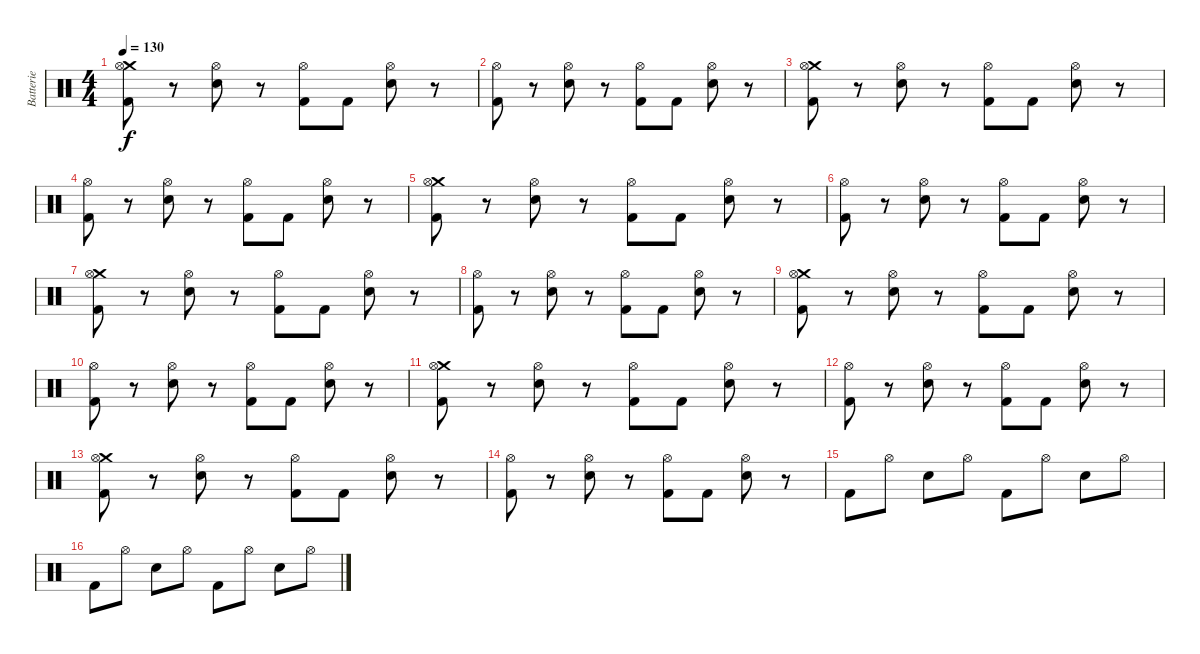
\track ("Batterie" "Batterie") {instrument percussion}
\staff {score}
\articulation defaults
\ts (4 4)
\tempo 130
\clef neutral
\ks c
("Crash medium (hit)" "Hi-Hat (open)" "Kick (hit) 2").8{dy f} r.8 ("Hi-Hat (open)" "Electric Snare (hit)").8 r.8 ("Hi-Hat (open)" "Kick (hit) 2").8 "Kick (hit) 2".8 ("Hi-Hat (open)" "Electric Snare (hit)").8 r.8 |
("Hi-Hat (open)" "Kick (hit) 2").8 r.8 ("Hi-Hat (open)" "Electric Snare (hit)").8 r.8 ("Hi-Hat (open)" "Kick (hit) 2").8 "Kick (hit) 2".8 ("Hi-Hat (open)" "Electric Snare (hit)").8 r.8 |
("Crash medium (hit)" "Hi-Hat (open)" "Kick (hit) 2").8 r.8 ("Hi-Hat (open)" "Electric Snare (hit)").8 r.8 ("Hi-Hat (open)" "Kick (hit) 2").8 "Kick (hit) 2".8 ("Hi-Hat (open)" "Electric Snare (hit)").8 r.8 |
("Hi-Hat (open)" "Kick (hit) 2").8 r.8 ("Hi-Hat (open)" "Electric Snare (hit)").8 r.8 ("Hi-Hat (open)" "Kick (hit) 2").8 "Kick (hit) 2".8 ("Hi-Hat (open)" "Electric Snare (hit)").8 r.8 |
("Crash medium (hit)" "Hi-Hat (open)" "Kick (hit) 2").8 r.8 ("Hi-Hat (open)" "Electric Snare (hit)").8 r.8 ("Hi-Hat (open)" "Kick (hit) 2").8 "Kick (hit) 2".8 ("Hi-Hat (open)" "Electric Snare (hit)").8 r.8 |
("Hi-Hat (open)" "Kick (hit) 2").8 r.8 ("Hi-Hat (open)" "Electric Snare (hit)").8 r.8 ("Hi-Hat (open)" "Kick (hit) 2").8 "Kick (hit) 2".8 ("Hi-Hat (open)" "Electric Snare (hit)").8 r.8 |
("Crash medium (hit)" "Hi-Hat (open)" "Kick (hit) 2").8 r.8 ("Hi-Hat (open)" "Electric Snare (hit)").8 r.8 ("Hi-Hat (open)" "Kick (hit) 2").8 "Kick (hit) 2".8 ("Hi-Hat (open)" "Electric Snare (hit)").8 r.8 |
("Hi-Hat (open)" "Kick (hit) 2").8 r.8 ("Hi-Hat (open)" "Electric Snare (hit)").8 r.8 ("Hi-Hat (open)" "Kick (hit) 2").8 "Kick (hit) 2".8 ("Hi-Hat (open)" "Electric Snare (hit)").8 r.8 |
("Crash medium (hit)" "Hi-Hat (open)" "Kick (hit) 2").8 r.8 ("Hi-Hat (open)" "Electric Snare (hit)").8 r.8 ("Hi-Hat (open)" "Kick (hit) 2").8 "Kick (hit) 2".8 ("Hi-Hat (open)" "Electric Snare (hit)").8 r.8 |
("Hi-Hat (open)" "Kick (hit) 2").8 r.8 ("Hi-Hat (open)" "Electric Snare (hit)").8 r.8 ("Hi-Hat (open)" "Kick (hit) 2").8 "Kick (hit) 2".8 ("Hi-Hat (open)" "Electric Snare (hit)").8 r.8 |
("Crash medium (hit)" "Hi-Hat (open)" "Kick (hit) 2").8 r.8 ("Hi-Hat (open)" "Electric Snare (hit)").8 r.8 ("Hi-Hat (open)" "Kick (hit) 2").8 "Kick (hit) 2".8 ("Hi-Hat (open)" "Electric Snare (hit)").8 r.8 |
("Hi-Hat (open)" "Kick (hit) 2").8 r.8 ("Hi-Hat (open)" "Electric Snare (hit)").8 r.8 ("Hi-Hat (open)" "Kick (hit) 2").8 "Kick (hit) 2".8 ("Hi-Hat (open)" "Electric Snare (hit)").8 r.8 |
("Crash medium (hit)" "Hi-Hat (open)" "Kick (hit) 2").8 r.8 ("Hi-Hat (open)" "Electric Snare (hit)").8 r.8 ("Hi-Hat (open)" "Kick (hit) 2").8 "Kick (hit) 2".8 ("Hi-Hat (open)" "Electric Snare (hit)").8 r.8 |
("Hi-Hat (open)" "Kick (hit) 2").8 r.8 ("Hi-Hat (open)" "Electric Snare (hit)").8 r.8 ("Hi-Hat (open)" "Kick (hit) 2").8 "Kick (hit) 2".8 ("Hi-Hat (open)" "Electric Snare (hit)").8 r.8 |
"Kick (hit) 2".8 "Hi-Hat (open)".8 "Electric Snare (hit)".8 "Hi-Hat (open)".8 "Kick (hit) 2".8 "Hi-Hat (open)".8 "Electric Snare (hit)".8 "Hi-Hat (open)".8 |
"Kick (hit) 2".8 "Hi-Hat (open)".8 "Electric Snare (hit)".8 "Hi-Hat (open)".8 "Kick (hit) 2".8 "Hi-Hat (open)".8 "Electric Snare (hit)".8 "Hi-Hat (open)".8
